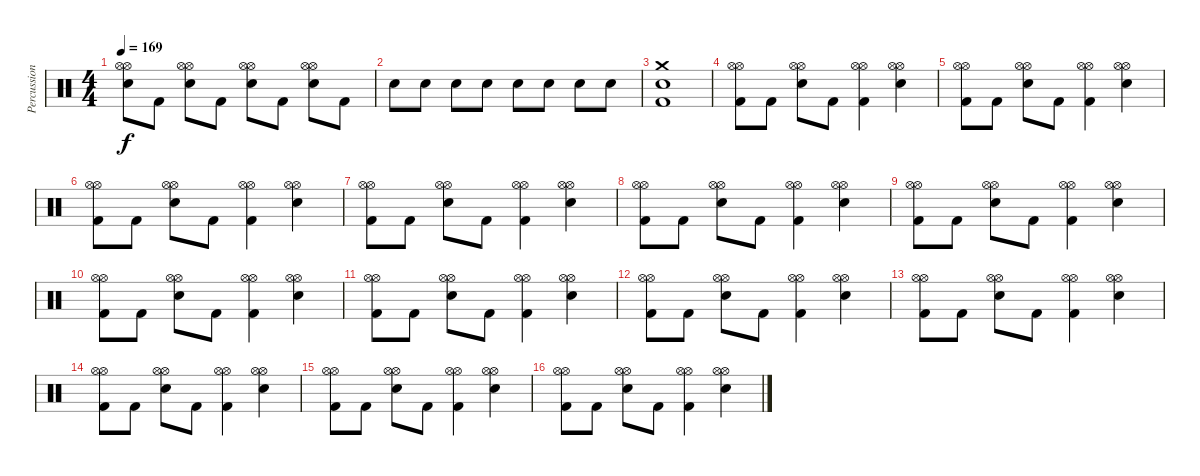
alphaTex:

\track ("Percussion" "Percussion") {instrument percussion}
\staff {score}
\articulation defaults
\ts (4 4)
\tempo 169
\clef neutral
\ks c
("Hi-Hat (open)" "Hi-Hat (open)" "Snare (hit) 2").8{dy f} "Kick (hit) 2".8 ("Hi-Hat (open)" "Hi-Hat (open)" "Snare (hit) 2").8 "Kick (hit) 2".8 ("Hi-Hat (open)" "Hi-Hat (open)" "Snare (hit) 2").8 "Kick (hit) 2".8 ("Hi-Hat (open)" "Hi-Hat (open)" "Snare (hit) 2").8 "Kick (hit) 2".8 |
"Snare (hit) 2".8 "Snare (hit) 2".8 "Snare (hit) 2".8 "Snare (hit) 2".8 "Snare (hit) 2".8 "Snare (hit) 2".8 "Snare (hit) 2".8 "Snare (hit) 2".8 |
("Crash medium (hit)" "Snare (hit) 2" "Kick (hit) 2").1 |
("Hi-Hat (open)" "Hi-Hat (open)" "Kick (hit) 2").8 "Kick (hit) 2".8 ("Hi-Hat (open)" "Hi-Hat (open)" "Snare (hit) 2").8 "Kick (hit) 2".8 ("Hi-Hat (open)" "Hi-Hat (open)" "Kick (hit) 2").4 ("Hi-Hat (open)" "Hi-Hat (open)" "Snare (hit) 2").4 |
("Hi-Hat (open)" "Hi-Hat (open)" "Kick (hit) 2").8 "Kick (hit) 2".8 ("Hi-Hat (open)" "Hi-Hat (open)" "Snare (hit) 2").8 "Kick (hit) 2".8 ("Hi-Hat (open)" "Hi-Hat (open)" "Kick (hit) 2").4 ("Hi-Hat (open)" "Hi-Hat (open)" "Snare (hit) 2").4 |
("Hi-Hat (open)" "Hi-Hat (open)" "Kick (hit) 2").8 "Kick (hit) 2".8 ("Hi-Hat (open)" "Hi-Hat (open)" "Snare (hit) 2").8 "Kick (hit) 2".8 ("Hi-Hat (open)" "Hi-Hat (open)" "Kick (hit) 2").4 ("Hi-Hat (open)" "Hi-Hat (open)" "Snare (hit) 2").4 |
("Hi-Hat (open)" "Hi-Hat (open)" "Kick (hit) 2").8 "Kick (hit) 2".8 ("Hi-Hat (open)" "Hi-Hat (open)" "Snare (hit) 2").8 "Kick (hit) 2".8 ("Hi-Hat (open)" "Hi-Hat (open)" "Kick (hit) 2").4 ("Hi-Hat (open)" "Hi-Hat (open)" "Snare (hit) 2").4 |
("Hi-Hat (open)" "Hi-Hat (open)" "Kick (hit) 2").8 "Kick (hit) 2".8 ("Hi-Hat (open)" "Hi-Hat (open)" "Snare (hit) 2").8 "Kick (hit) 2".8 ("Hi-Hat (open)" "Hi-Hat (open)" "Kick (hit) 2").4 ("Hi-Hat (open)" "Hi-Hat (open)" "Snare (hit) 2").4 |
("Hi-Hat (open)" "Hi-Hat (open)" "Kick (hit) 2").8 "Kick (hit) 2".8 ("Hi-Hat (open)" "Hi-Hat (open)" "Snare (hit) 2").8 "Kick (hit) 2".8 ("Hi-Hat (open)" "Hi-Hat (open)" "Kick (hit) 2").4 ("Hi-Hat (open)" "Hi-Hat (open)" "Snare (hit) 2").4 |
("Hi-Hat (open)" "Hi-Hat (open)" "Kick (hit) 2").8 "Kick (hit) 2".8 ("Hi-Hat (open)" "Hi-Hat (open)" "Snare (hit) 2").8 "Kick (hit) 2".8 ("Hi-Hat (open)" "Hi-Hat (open)" "Kick (hit) 2").4 ("Hi-Hat (open)" "Hi-Hat (open)" "Snare (hit) 2").4 |
("Hi-Hat (open)" "Hi-Hat (open)" "Kick (hit) 2").8 "Kick (hit) 2".8 ("Hi-Hat (open)" "Hi-Hat (open)" "Snare (hit) 2").8 "Kick (hit) 2".8 ("Hi-Hat (open)" "Hi-Hat (open)" "Kick (hit) 2").4 ("Hi-Hat (open)" "Hi-Hat (open)" "Snare (hit) 2").4 |
("Hi-Hat (open)" "Hi-Hat (open)" "Kick (hit) 2").8 "Kick (hit) 2".8 ("Hi-Hat (open)" "Hi-Hat (open)" "Snare (hit) 2").8 "Kick (hit) 2".8 ("Hi-Hat (open)" "Hi-Hat (open)" "Kick (hit) 2").4 ("Hi-Hat (open)" "Hi-Hat (open)" "Snare (hit) 2").4 |
("Hi-Hat (open)" "Hi-Hat (open)" "Kick (hit) 2").8 "Kick (hit) 2".8 ("Hi-Hat (open)" "Hi-Hat (open)" "Snare (hit) 2").8 "Kick (hit) 2".8 ("Hi-Hat (open)" "Hi-Hat (open)" "Kick (hit) 2").4 ("Hi-Hat (open)" "Hi-Hat (open)" "Snare (hit) 2").4 |
("Hi-Hat (open)" "Hi-Hat (open)" "Kick (hit) 2").8 "Kick (hit) 2".8 ("Hi-Hat (open)" "Hi-Hat (open)" "Snare (hit) 2").8 "Kick (hit) 2".8 ("Hi-Hat (open)" "Hi-Hat (open)" "Kick (hit) 2").4 ("Hi-Hat (open)" "Hi-Hat (open)" "Snare (hit) 2").4 |
("Hi-Hat (open)" "Hi-Hat (open)" "Kick (hit) 2").8 "Kick (hit) 2".8 ("Hi-Hat (open)" "Hi-Hat (open)" "Snare (hit) 2").8 "Kick (hit) 2".8 ("Hi-Hat (open)" "Hi-Hat (open)" "Kick (hit) 2").4 ("Hi-Hat (open)" "Hi-Hat (open)" "Snare (hit) 2").4 |
("Hi-Hat (open)" "Hi-Hat (open)" "Kick (hit) 2").8 "Kick (hit) 2".8 ("Hi-Hat (open)" "Hi-Hat (open)" "Snare (hit) 2").8 "Kick (hit) 2".8 ("Hi-Hat (open)" "Hi-Hat (open)" "Kick (hit) 2").4 ("Hi-Hat (open)" "Hi-Hat (open)" "Snare (hit) 2").4
